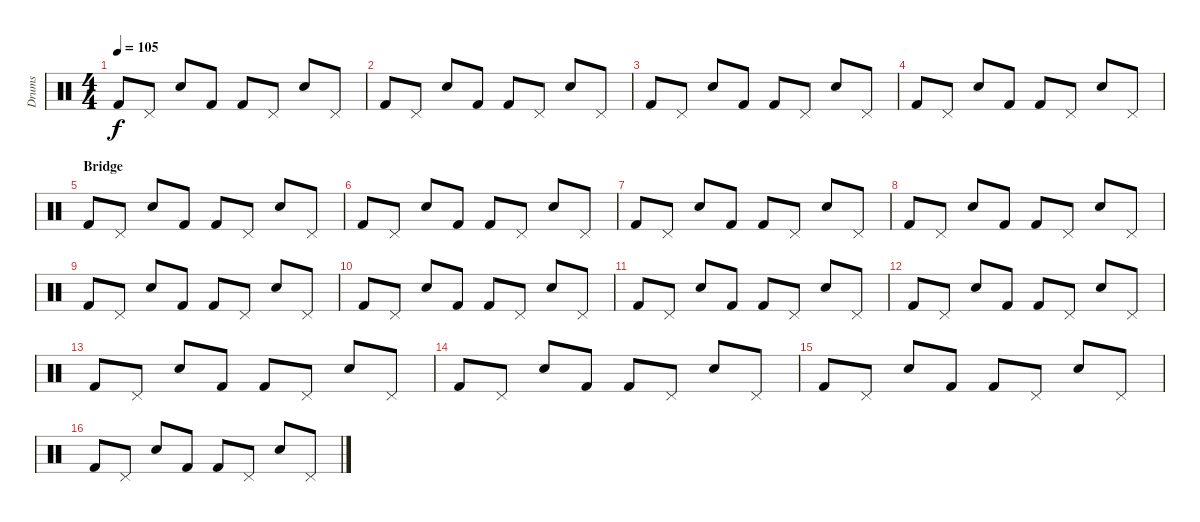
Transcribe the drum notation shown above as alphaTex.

\track ("Drums" "Drums") {instrument percussion}
\staff {score}
\articulation defaults
\ts (4 4)
\tempo 105
\clef neutral
\ks c "Kick (hit) 2".8{dy f} "Pedal Hi-Hat (hit)".8 "Electric Snare (hit)".8 "Kick (hit) 2".8 "Kick (hit) 2".8 "Pedal Hi-Hat (hit)".8 "Electric Snare (hit)".8 "Pedal Hi-Hat (hit)".8
|
"Kick (hit) 2".8 "Pedal Hi-Hat (hit)".8 "Electric Snare (hit)".8 "Kick (hit) 2".8 "Kick (hit) 2".8 "Pedal Hi-Hat (hit)".8 "Electric Snare (hit)".8 "Pedal Hi-Hat (hit)".8 |
"Kick (hit) 2".8 "Pedal Hi-Hat (hit)".8 "Electric Snare (hit)".8 "Kick (hit) 2".8 "Kick (hit) 2".8 "Pedal Hi-Hat (hit)".8 "Electric Snare (hit)".8 "Pedal Hi-Hat (hit)".8 |
"Kick (hit) 2".8 "Pedal Hi-Hat (hit)".8 "Electric Snare (hit)".8 "Kick (hit) 2".8 "Kick (hit) 2".8 "Pedal Hi-Hat (hit)".8 "Electric Snare (hit)".8 "Pedal Hi-Hat (hit)".8 |
\section ("" "Bridge")
"Kick (hit) 2".8 "Pedal Hi-Hat (hit)".8 "Electric Snare (hit)".8 "Kick (hit) 2".8 "Kick (hit) 2".8 "Pedal Hi-Hat (hit)".8 "Electric Snare (hit)".8 "Pedal Hi-Hat (hit)".8 |
"Kick (hit) 2".8 "Pedal Hi-Hat (hit)".8 "Electric Snare (hit)".8 "Kick (hit) 2".8 "Kick (hit) 2".8 "Pedal Hi-Hat (hit)".8 "Electric Snare (hit)".8 "Pedal Hi-Hat (hit)".8 |
"Kick (hit) 2".8 "Pedal Hi-Hat (hit)".8 "Electric Snare (hit)".8 "Kick (hit) 2".8 "Kick (hit) 2".8 "Pedal Hi-Hat (hit)".8 "Electric Snare (hit)".8 "Pedal Hi-Hat (hit)".8 |
"Kick (hit) 2".8 "Pedal Hi-Hat (hit)".8 "Electric Snare (hit)".8 "Kick (hit) 2".8 "Kick (hit) 2".8 "Pedal Hi-Hat (hit)".8 "Electric Snare (hit)".8 "Pedal Hi-Hat (hit)".8 |
"Kick (hit) 2".8 "Pedal Hi-Hat (hit)".8 "Electric Snare (hit)".8 "Kick (hit) 2".8 "Kick (hit) 2".8 "Pedal Hi-Hat (hit)".8 "Electric Snare (hit)".8 "Pedal Hi-Hat (hit)".8 |
"Kick (hit) 2".8 "Pedal Hi-Hat (hit)".8 "Electric Snare (hit)".8 "Kick (hit) 2".8 "Kick (hit) 2".8 "Pedal Hi-Hat (hit)".8 "Electric Snare (hit)".8 "Pedal Hi-Hat (hit)".8 |
"Kick (hit) 2".8 "Pedal Hi-Hat (hit)".8 "Electric Snare (hit)".8 "Kick (hit) 2".8 "Kick (hit) 2".8 "Pedal Hi-Hat (hit)".8 "Electric Snare (hit)".8 "Pedal Hi-Hat (hit)".8 |
"Kick (hit) 2".8 "Pedal Hi-Hat (hit)".8 "Electric Snare (hit)".8 "Kick (hit) 2".8 "Kick (hit) 2".8 "Pedal Hi-Hat (hit)".8 "Electric Snare (hit)".8 "Pedal Hi-Hat (hit)".8 |
"Kick (hit) 2".8 "Pedal Hi-Hat (hit)".8 "Electric Snare (hit)".8 "Kick (hit) 2".8 "Kick (hit) 2".8 "Pedal Hi-Hat (hit)".8 "Electric Snare (hit)".8 "Pedal Hi-Hat (hit)".8 |
"Kick (hit) 2".8 "Pedal Hi-Hat (hit)".8 "Electric Snare (hit)".8 "Kick (hit) 2".8 "Kick (hit) 2".8 "Pedal Hi-Hat (hit)".8 "Electric Snare (hit)".8 "Pedal Hi-Hat (hit)".8 |
"Kick (hit) 2".8 "Pedal Hi-Hat (hit)".8 "Electric Snare (hit)".8 "Kick (hit) 2".8 "Kick (hit) 2".8 "Pedal Hi-Hat (hit)".8 "Electric Snare (hit)".8 "Pedal Hi-Hat (hit)".8 |
"Kick (hit) 2".8 "Pedal Hi-Hat (hit)".8 "Electric Snare (hit)".8 "Kick (hit) 2".8 "Kick (hit) 2".8 "Pedal Hi-Hat (hit)".8 "Electric Snare (hit)".8 "Pedal Hi-Hat (hit)".8
